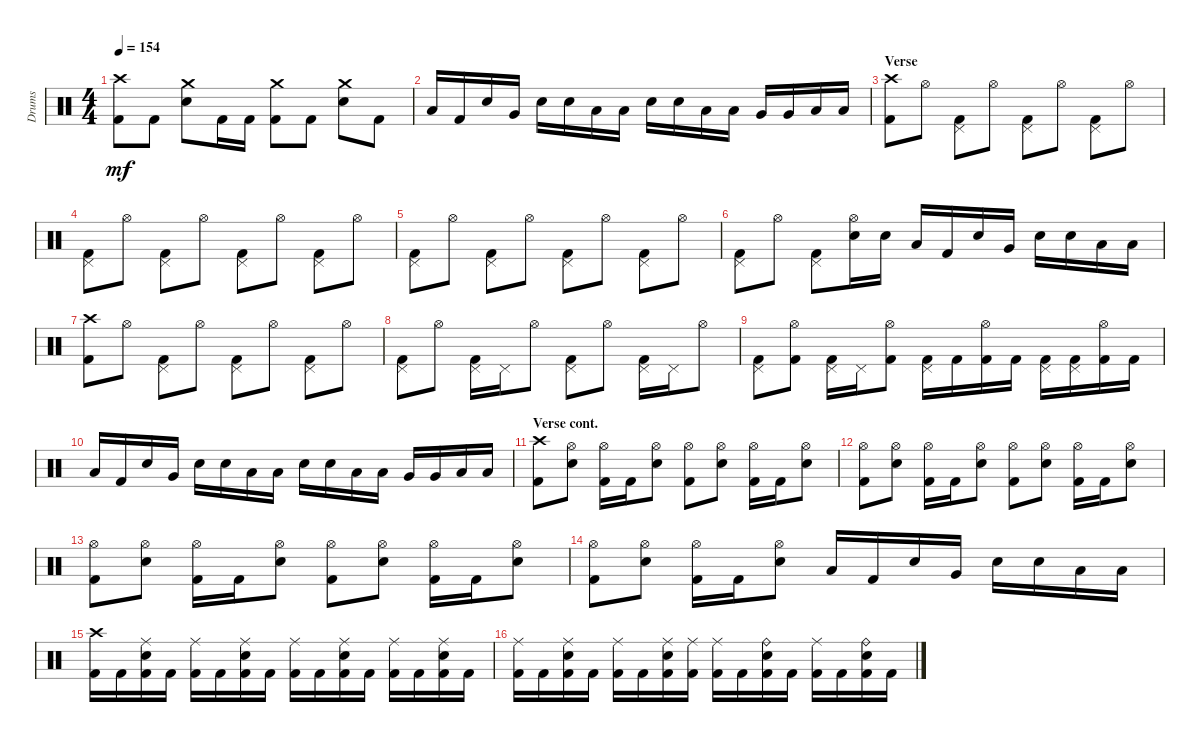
\track ("Drums" "Drums") {instrument percussion}
\staff {score}
\articulation defaults
\ts (4 4)
\tempo 154
\clef neutral
\ks aminor
("Kick (hit) 2" "Crash high (hit)").8{dy mf} "Kick (hit) 2".8 ("Snare (hit) 2" "Crash medium (hit)").8 "Kick (hit) 2".16 "Kick (hit) 2".16 ("Kick (hit) 2" "Crash medium (hit)").8 "Kick (hit) 2".8 ("Snare (hit) 2" "Crash medium (hit)").8 "Kick (hit) 2".8 |
"Low Tom (hit)".16 "Kick (hit) 2".16 "Snare (hit) 2".16 "Very Low Tom (hit)".16 "Snare (hit) 2".16 "Snare (hit) 2".16 "Low Floor Tom (hit)".16 "Low Floor Tom (hit)".16 "Snare (hit) 2".16 "Snare (hit) 2".16 "Low Tom (hit)".16 "Low Tom (hit)".16 "Very Low Tom (hit)".16 "Very Low Tom (hit)".16 "Low Floor Tom (hit)".16 "Low Floor Tom (hit)".16 |
\section ("" "Verse")
("Kick (hit) 2" "Crash high (hit)").8 "Hi-Hat (open)".8 ("Kick (hit) 2" "Pedal Hi-Hat (hit)").8 "Hi-Hat (open)".8 ("Kick (hit) 2" "Pedal Hi-Hat (hit)").8 "Hi-Hat (open)".8 ("Kick (hit) 2" "Pedal Hi-Hat (hit)").8 "Hi-Hat (open)".8 |
("Kick (hit) 2" "Pedal Hi-Hat (hit)").8 "Hi-Hat (open)".8 ("Kick (hit) 2" "Pedal Hi-Hat (hit)").8 "Hi-Hat (open)".8 ("Kick (hit) 2" "Pedal Hi-Hat (hit)").8 "Hi-Hat (open)".8 ("Kick (hit) 2" "Pedal Hi-Hat (hit)").8 "Hi-Hat (open)".8 |
("Kick (hit) 2" "Pedal Hi-Hat (hit)").8 "Hi-Hat (open)".8 ("Kick (hit) 2" "Pedal Hi-Hat (hit)").8 "Hi-Hat (open)".8 ("Kick (hit) 2" "Pedal Hi-Hat (hit)").8 "Hi-Hat (open)".8 ("Kick (hit) 2" "Pedal Hi-Hat (hit)").8 "Hi-Hat (open)".8 |
("Kick (hit) 2" "Pedal Hi-Hat (hit)").8 "Hi-Hat (open)".8 ("Kick (hit) 2" "Pedal Hi-Hat (hit)").8 ("Snare (hit) 2" "Hi-Hat (open)").16 "Snare (hit) 2".16 "Low Tom (hit)".16 "Kick (hit) 2".16 "Snare (hit) 2".16 "Very Low Tom (hit)".16 "Snare (hit) 2".16 "Snare (hit) 2".16 "Low Floor Tom (hit)".16 "Low Floor Tom (hit)".16 |
("Kick (hit) 2" "Crash high (hit)").8 "Hi-Hat (open)".8 ("Kick (hit) 2" "Pedal Hi-Hat (hit)").8 "Hi-Hat (open)".8 ("Kick (hit) 2" "Pedal Hi-Hat (hit)").8 "Hi-Hat (open)".8 ("Kick (hit) 2" "Pedal Hi-Hat (hit)").8 "Hi-Hat (open)".8 |
("Kick (hit) 2" "Pedal Hi-Hat (hit)").8 "Hi-Hat (open)".8 ("Kick (hit) 2" "Pedal Hi-Hat (hit)").16 "Pedal Hi-Hat (hit)".16 "Hi-Hat (open)".8 ("Kick (hit) 2" "Pedal Hi-Hat (hit)").8 "Hi-Hat (open)".8 ("Kick (hit) 2" "Pedal Hi-Hat (hit)").16 "Pedal Hi-Hat (hit)".16 "Hi-Hat (open)".8 |
("Kick (hit) 2" "Pedal Hi-Hat (hit)").8 ("Kick (hit) 2" "Hi-Hat (open)").8 ("Kick (hit) 2" "Pedal Hi-Hat (hit)").16 "Pedal Hi-Hat (hit)".16 ("Kick (hit) 2" "Hi-Hat (open)").8 ("Kick (hit) 2" "Pedal Hi-Hat (hit)").16 "Kick (hit) 2".16 ("Kick (hit) 2" "Hi-Hat (open)").16 "Kick (hit) 2".16 ("Kick (hit) 2" "Pedal Hi-Hat (hit)").16 ("Kick (hit) 2" "Pedal Hi-Hat (hit)").16 ("Kick (hit) 2" "Hi-Hat (open)").16 "Kick (hit) 2".16 |
"Low Tom (hit)".16 "Kick (hit) 2".16 "Snare (hit) 2".16 "Very Low Tom (hit)".16 "Snare (hit) 2".16 "Snare (hit) 2".16 "Low Floor Tom (hit)".16 "Low Floor Tom (hit)".16 "Snare (hit) 2".16 "Snare (hit) 2".16 "Low Tom (hit)".16 "Low Tom (hit)".16 "Very Low Tom (hit)".16 "Very Low Tom (hit)".16 "Low Floor Tom (hit)".16 "Low Floor Tom (hit)".16 |
\section ("" "Verse cont.")
("Kick (hit) 2" "Crash high (hit)").8 ("Snare (hit) 2" "Hi-Hat (open)").8 ("Kick (hit) 2" "Hi-Hat (open)").16 "Kick (hit) 2".16 ("Snare (hit) 2" "Hi-Hat (open)").8 ("Kick (hit) 2" "Hi-Hat (open)").8 ("Snare (hit) 2" "Hi-Hat (open)").8 ("Kick (hit) 2" "Hi-Hat (open)").16 "Kick (hit) 2".16 ("Snare (hit) 2" "Hi-Hat (open)").8 |
("Kick (hit) 2" "Hi-Hat (open)").8 ("Snare (hit) 2" "Hi-Hat (open)").8 ("Kick (hit) 2" "Hi-Hat (open)").16 "Kick (hit) 2".16 ("Snare (hit) 2" "Hi-Hat (open)").8 ("Kick (hit) 2" "Hi-Hat (open)").8 ("Snare (hit) 2" "Hi-Hat (open)").8 ("Kick (hit) 2" "Hi-Hat (open)").16 "Kick (hit) 2".16 ("Snare (hit) 2" "Hi-Hat (open)").8 |
("Kick (hit) 2" "Hi-Hat (open)").8 ("Snare (hit) 2" "Hi-Hat (open)").8 ("Kick (hit) 2" "Hi-Hat (open)").16 "Kick (hit) 2".16 ("Snare (hit) 2" "Hi-Hat (open)").8 ("Kick (hit) 2" "Hi-Hat (open)").8 ("Snare (hit) 2" "Hi-Hat (open)").8 ("Kick (hit) 2" "Hi-Hat (open)").16 "Kick (hit) 2".16 ("Snare (hit) 2" "Hi-Hat (open)").8 |
("Kick (hit) 2" "Hi-Hat (open)").8 ("Snare (hit) 2" "Hi-Hat (open)").8 ("Kick (hit) 2" "Hi-Hat (open)").16 "Kick (hit) 2".16 ("Snare (hit) 2" "Hi-Hat (open)").8 "Low Tom (hit)".16 "Kick (hit) 2".16 "Snare (hit) 2".16 "Very Low Tom (hit)".16 "Snare (hit) 2".16 "Snare (hit) 2".16 "Low Floor Tom (hit)".16 "Low Floor Tom (hit)".16 |
("Kick (hit) 2" "Crash high (hit)").16 "Kick (hit) 2".16 ("Kick (hit) 2" "Snare (hit) 2" "Ride (middle)").16 "Kick (hit) 2".16 ("Kick (hit) 2" "Ride (middle)").16 "Kick (hit) 2".16 ("Kick (hit) 2" "Snare (hit) 2" "Ride (middle)").16 "Kick (hit) 2".16 ("Kick (hit) 2" "Ride (middle)").16 "Kick (hit) 2".16 ("Kick (hit) 2" "Snare (hit) 2" "Ride (middle)").16 "Kick (hit) 2".16 ("Kick (hit) 2" "Ride (middle)").16 "Kick (hit) 2".16 ("Kick (hit) 2" "Snare (hit) 2" "Ride (middle)").16 "Kick (hit) 2".16 |
("Kick (hit) 2" "Ride (middle)").16 "Kick (hit) 2".16 ("Kick (hit) 2" "Snare (hit) 2" "Ride (middle)").16 "Kick (hit) 2".16 ("Kick (hit) 2" "Ride (middle)").16 "Kick (hit) 2".16 ("Kick (hit) 2" "Snare (hit) 2" "Ride (middle)").16 ("Kick (hit) 2" "Ride (middle)").16 ("Kick (hit) 2" "Ride (middle)").16 "Kick (hit) 2".16 ("Kick (hit) 2" "Snare (hit) 2" "Ride (bell)").16 "Kick (hit) 2".16 ("Kick (hit) 2" "Ride (middle)").16 "Kick (hit) 2".16 ("Kick (hit) 2" "Snare (hit) 2" "Ride (bell)").16 "Kick (hit) 2".16
